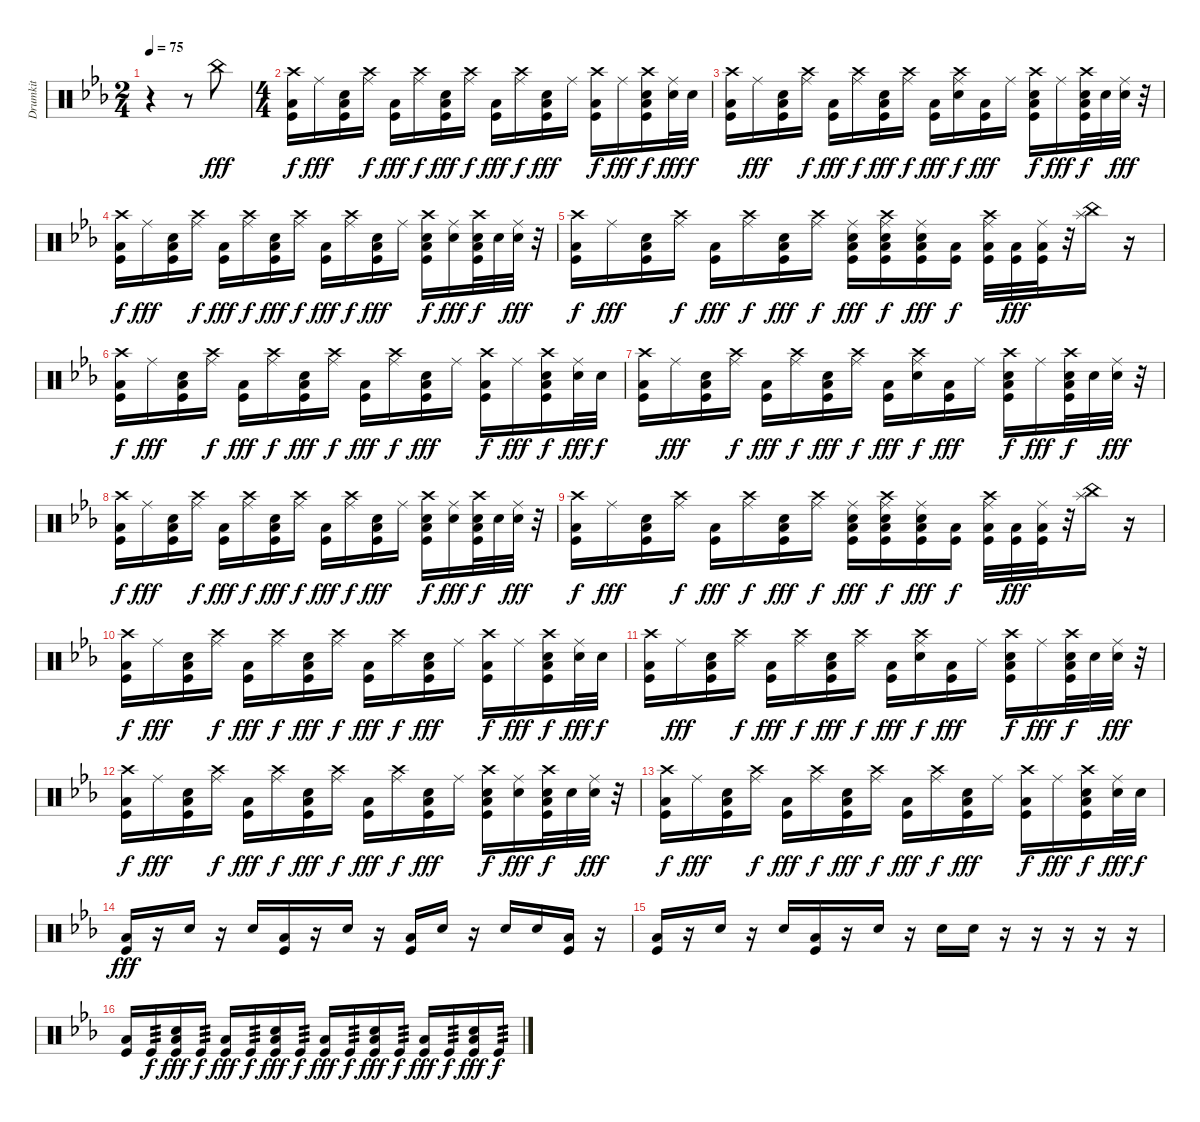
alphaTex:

\track ("Drumkit" "Drumkit") {instrument percussion}
\staff {score}
\articulation defaults
\ts (2 4)
\tempo 75
\clef neutral
\ks eb
r.4{dy fff} r.8 "China (hit)".8 |
\ts (4 4)
("Crash high (hit)" "Low Floor Tom (hit)" "Kick (hit)").16{dy f} "Ride (middle)".16{dy fff} ("Low Floor Tom (hit)" "Snare (hit) 2" "Kick (hit)").16 ("Crash high (hit)" "Ride (middle)").16{dy f} ("Low Floor Tom (hit)" "Kick (hit)").16{dy fff} ("Crash high (hit)" "Ride (middle)").16{dy f} ("Low Floor Tom (hit)" "Snare (hit) 2" "Kick (hit)").16{dy fff} ("Crash high (hit)" "Ride (middle)").16{dy f} ("Low Floor Tom (hit)" "Kick (hit)").16{dy fff} ("Crash high (hit)" "Ride (middle)").16{dy f} ("Low Floor Tom (hit)" "Snare (hit) 2" "Kick (hit)").16{dy fff} "Ride (middle)".16 ("Crash high (hit)" "Low Floor Tom (hit)" "Kick (hit)").16{dy f} "Ride (middle)".16{dy fff} ("Crash high (hit)" "Low Floor Tom (hit)" "Snare (hit) 2" "Kick (hit)").16{dy f} ("Ride (middle)" "Snare (hit) 2").32{dy fff} "Snare (hit) 2".32{dy f} |
("Crash high (hit)" "Low Floor Tom (hit)" "Kick (hit)").16 "Ride (middle)".16{dy fff} ("Low Floor Tom (hit)" "Snare (hit) 2" "Kick (hit)").16 ("Crash high (hit)" "Ride (middle)").16{dy f} ("Low Floor Tom (hit)" "Kick (hit)").16{dy fff} ("Crash high (hit)" "Ride (middle)").16{dy f} ("Low Floor Tom (hit)" "Snare (hit) 2" "Kick (hit)").16{dy fff} ("Crash high (hit)" "Ride (middle)").16{dy f} ("Low Floor Tom (hit)" "Kick (hit)").16{dy fff} ("Crash high (hit)" "Ride (middle)" "Snare (hit) 2").16{dy f} ("Low Floor Tom (hit)" "Kick (hit)").16{dy fff} "Ride (middle)".16 ("Crash high (hit)" "Low Floor Tom (hit)" "Snare (hit) 2" "Kick (hit)").16{dy f} "Ride (middle)".16{dy fff} ("Crash high (hit)" "Low Floor Tom (hit)" "Snare (hit) 2" "Kick (hit)").32{dy f} "Snare (hit) 2".32 ("Ride (middle)" "Snare (hit) 2").32{dy fff} r.32 |
("Crash high (hit)" "Low Floor Tom (hit)" "Kick (hit)").16{dy f} "Ride (middle)".16{dy fff} ("Low Floor Tom (hit)" "Snare (hit) 2" "Kick (hit)").16 ("Crash high (hit)" "Ride (middle)").16{dy f} ("Low Floor Tom (hit)" "Kick (hit)").16{dy fff} ("Crash high (hit)" "Ride (middle)").16{dy f} ("Low Floor Tom (hit)" "Snare (hit) 2" "Kick (hit)").16{dy fff} ("Crash high (hit)" "Ride (middle)").16{dy f} ("Low Floor Tom (hit)" "Kick (hit)").16{dy fff} ("Crash high (hit)" "Ride (middle)").16{dy f} ("Low Floor Tom (hit)" "Snare (hit) 2" "Kick (hit)").16{dy fff} "Ride (middle)".16 ("Crash high (hit)" "Low Floor Tom (hit)" "Snare (hit) 2" "Kick (hit)").16{dy f} ("Ride (middle)" "Snare (hit) 2").16{dy fff} ("Crash high (hit)" "Low Floor Tom (hit)" "Snare (hit) 2" "Kick (hit)").32{dy f} "Snare (hit) 2".32 ("Ride (middle)" "Snare (hit) 2").32{dy fff} r.32 |
("Crash high (hit)" "Low Floor Tom (hit)" "Kick (hit)").16{dy f} "Ride (middle)".16{dy fff} ("Low Floor Tom (hit)" "Snare (hit) 2" "Kick (hit)").16 ("Crash high (hit)" "Ride (middle)").16{dy f} ("Low Floor Tom (hit)" "Kick (hit)").16{dy fff} ("Crash high (hit)" "Ride (middle)").16{dy f} ("Low Floor Tom (hit)" "Snare (hit) 2" "Kick (hit)").16{dy fff} ("Crash high (hit)" "Ride (middle)").16{dy f} ("Ride (middle)" "Low Floor Tom (hit)" "Snare (hit) 2" "Kick (hit)").16{dy fff} ("Crash high (hit)" "Ride (middle)" "Low Floor Tom (hit)" "Snare (hit) 2" "Kick (hit)").16{dy f} ("Ride (middle)" "Low Floor Tom (hit)" "Snare (hit) 2" "Kick (hit)").16{dy fff} ("Low Floor Tom (hit)" "Kick (hit)").16{dy f} ("Crash high (hit)" "Ride (middle)" "Low Floor Tom (hit)" "Kick (hit)").32 ("Low Floor Tom (hit)" "Kick (hit)").32{dy fff} ("Ride (middle)" "Low Floor Tom (hit)" "Kick (hit)").32 r.32 ("Splash (hit)" "China (hit)").16 r.16 |
("Crash high (hit)" "Low Floor Tom (hit)" "Kick (hit)").16{dy f} "Ride (middle)".16{dy fff} ("Low Floor Tom (hit)" "Snare (hit) 2" "Kick (hit)").16 ("Crash high (hit)" "Ride (middle)").16{dy f} ("Low Floor Tom (hit)" "Kick (hit)").16{dy fff} ("Crash high (hit)" "Ride (middle)").16{dy f} ("Low Floor Tom (hit)" "Snare (hit) 2" "Kick (hit)").16{dy fff} ("Crash high (hit)" "Ride (middle)").16{dy f} ("Low Floor Tom (hit)" "Kick (hit)").16{dy fff} ("Crash high (hit)" "Ride (middle)").16{dy f} ("Low Floor Tom (hit)" "Snare (hit) 2" "Kick (hit)").16{dy fff} "Ride (middle)".16 ("Crash high (hit)" "Low Floor Tom (hit)" "Kick (hit)").16{dy f} "Ride (middle)".16{dy fff} ("Crash high (hit)" "Low Floor Tom (hit)" "Snare (hit) 2" "Kick (hit)").16{dy f} ("Ride (middle)" "Snare (hit) 2").32{dy fff} "Snare (hit) 2".32{dy f} |
("Crash high (hit)" "Low Floor Tom (hit)" "Kick (hit)").16 "Ride (middle)".16{dy fff} ("Low Floor Tom (hit)" "Snare (hit) 2" "Kick (hit)").16 ("Crash high (hit)" "Ride (middle)").16{dy f} ("Low Floor Tom (hit)" "Kick (hit)").16{dy fff} ("Crash high (hit)" "Ride (middle)").16{dy f} ("Low Floor Tom (hit)" "Snare (hit) 2" "Kick (hit)").16{dy fff} ("Crash high (hit)" "Ride (middle)").16{dy f} ("Low Floor Tom (hit)" "Kick (hit)").16{dy fff} ("Crash high (hit)" "Ride (middle)" "Snare (hit) 2").16{dy f} ("Low Floor Tom (hit)" "Kick (hit)").16{dy fff} "Ride (middle)".16 ("Crash high (hit)" "Low Floor Tom (hit)" "Snare (hit) 2" "Kick (hit)").16{dy f} "Ride (middle)".16{dy fff} ("Crash high (hit)" "Low Floor Tom (hit)" "Snare (hit) 2" "Kick (hit)").32{dy f} "Snare (hit) 2".32 ("Ride (middle)" "Snare (hit) 2").32{dy fff} r.32 |
("Crash high (hit)" "Low Floor Tom (hit)" "Kick (hit)").16{dy f} "Ride (middle)".16{dy fff} ("Low Floor Tom (hit)" "Snare (hit) 2" "Kick (hit)").16 ("Crash high (hit)" "Ride (middle)").16{dy f} ("Low Floor Tom (hit)" "Kick (hit)").16{dy fff} ("Crash high (hit)" "Ride (middle)").16{dy f} ("Low Floor Tom (hit)" "Snare (hit) 2" "Kick (hit)").16{dy fff} ("Crash high (hit)" "Ride (middle)").16{dy f} ("Low Floor Tom (hit)" "Kick (hit)").16{dy fff} ("Crash high (hit)" "Ride (middle)").16{dy f} ("Low Floor Tom (hit)" "Snare (hit) 2" "Kick (hit)").16{dy fff} "Ride (middle)".16 ("Crash high (hit)" "Low Floor Tom (hit)" "Snare (hit) 2" "Kick (hit)").16{dy f} ("Ride (middle)" "Snare (hit) 2").16{dy fff} ("Crash high (hit)" "Low Floor Tom (hit)" "Snare (hit) 2" "Kick (hit)").32{dy f} "Snare (hit) 2".32 ("Ride (middle)" "Snare (hit) 2").32{dy fff} r.32 |
("Crash high (hit)" "Low Floor Tom (hit)" "Kick (hit)").16{dy f} "Ride (middle)".16{dy fff} ("Low Floor Tom (hit)" "Snare (hit) 2" "Kick (hit)").16 ("Crash high (hit)" "Ride (middle)").16{dy f} ("Low Floor Tom (hit)" "Kick (hit)").16{dy fff} ("Crash high (hit)" "Ride (middle)").16{dy f} ("Low Floor Tom (hit)" "Snare (hit) 2" "Kick (hit)").16{dy fff} ("Crash high (hit)" "Ride (middle)").16{dy f} ("Ride (middle)" "Low Floor Tom (hit)" "Snare (hit) 2" "Kick (hit)").16{dy fff} ("Crash high (hit)" "Ride (middle)" "Low Floor Tom (hit)" "Snare (hit) 2" "Kick (hit)").16{dy f} ("Ride (middle)" "Low Floor Tom (hit)" "Snare (hit) 2" "Kick (hit)").16{dy fff} ("Low Floor Tom (hit)" "Kick (hit)").16{dy f} ("Crash high (hit)" "Ride (middle)" "Low Floor Tom (hit)" "Kick (hit)").32 ("Low Floor Tom (hit)" "Kick (hit)").32{dy fff} ("Ride (middle)" "Low Floor Tom (hit)" "Kick (hit)").32 r.32 ("Splash (hit)" "China (hit)").16 r.16 |
("Crash high (hit)" "Low Floor Tom (hit)" "Kick (hit)").16{dy f} "Ride (middle)".16{dy fff} ("Low Floor Tom (hit)" "Snare (hit) 2" "Kick (hit)").16 ("Crash high (hit)" "Ride (middle)").16{dy f} ("Low Floor Tom (hit)" "Kick (hit)").16{dy fff} ("Crash high (hit)" "Ride (middle)").16{dy f} ("Low Floor Tom (hit)" "Snare (hit) 2" "Kick (hit)").16{dy fff} ("Crash high (hit)" "Ride (middle)").16{dy f} ("Low Floor Tom (hit)" "Kick (hit)").16{dy fff} ("Crash high (hit)" "Ride (middle)").16{dy f} ("Low Floor Tom (hit)" "Snare (hit) 2" "Kick (hit)").16{dy fff} "Ride (middle)".16 ("Crash high (hit)" "Low Floor Tom (hit)" "Kick (hit)").16{dy f} "Ride (middle)".16{dy fff} ("Crash high (hit)" "Low Floor Tom (hit)" "Snare (hit) 2" "Kick (hit)").16{dy f} ("Ride (middle)" "Snare (hit) 2").32{dy fff} "Snare (hit) 2".32{dy f} |
("Crash high (hit)" "Low Floor Tom (hit)" "Kick (hit)").16 "Ride (middle)".16{dy fff} ("Low Floor Tom (hit)" "Snare (hit) 2" "Kick (hit)").16 ("Crash high (hit)" "Ride (middle)").16{dy f} ("Low Floor Tom (hit)" "Kick (hit)").16{dy fff} ("Crash high (hit)" "Ride (middle)").16{dy f} ("Low Floor Tom (hit)" "Snare (hit) 2" "Kick (hit)").16{dy fff} ("Crash high (hit)" "Ride (middle)").16{dy f} ("Low Floor Tom (hit)" "Kick (hit)").16{dy fff} ("Crash high (hit)" "Ride (middle)" "Snare (hit) 2").16{dy f} ("Low Floor Tom (hit)" "Kick (hit)").16{dy fff} "Ride (middle)".16 ("Crash high (hit)" "Low Floor Tom (hit)" "Snare (hit) 2" "Kick (hit)").16{dy f} "Ride (middle)".16{dy fff} ("Crash high (hit)" "Low Floor Tom (hit)" "Snare (hit) 2" "Kick (hit)").32{dy f} "Snare (hit) 2".32 ("Ride (middle)" "Snare (hit) 2").32{dy fff} r.32 |
("Crash high (hit)" "Low Floor Tom (hit)" "Kick (hit)").16{dy f} "Ride (middle)".16{dy fff} ("Low Floor Tom (hit)" "Snare (hit) 2" "Kick (hit)").16 ("Crash high (hit)" "Ride (middle)").16{dy f} ("Low Floor Tom (hit)" "Kick (hit)").16{dy fff} ("Crash high (hit)" "Ride (middle)").16{dy f} ("Low Floor Tom (hit)" "Snare (hit) 2" "Kick (hit)").16{dy fff} ("Crash high (hit)" "Ride (middle)").16{dy f} ("Low Floor Tom (hit)" "Kick (hit)").16{dy fff} ("Crash high (hit)" "Ride (middle)").16{dy f} ("Low Floor Tom (hit)" "Snare (hit) 2" "Kick (hit)").16{dy fff} "Ride (middle)".16 ("Crash high (hit)" "Low Floor Tom (hit)" "Snare (hit) 2" "Kick (hit)").16{dy f} ("Ride (middle)" "Snare (hit) 2").16{dy fff} ("Crash high (hit)" "Low Floor Tom (hit)" "Snare (hit) 2" "Kick (hit)").32{dy f} "Snare (hit) 2".32 ("Ride (middle)" "Snare (hit) 2").32{dy fff} r.32 |
("Crash high (hit)" "Low Floor Tom (hit)" "Kick (hit)").16{dy f} "Ride (middle)".16{dy fff} ("Low Floor Tom (hit)" "Snare (hit) 2" "Kick (hit)").16 ("Crash high (hit)" "Ride (middle)").16{dy f} ("Low Floor Tom (hit)" "Kick (hit)").16{dy fff} ("Crash high (hit)" "Ride (middle)").16{dy f} ("Low Floor Tom (hit)" "Snare (hit) 2" "Kick (hit)").16{dy fff} ("Crash high (hit)" "Ride (middle)").16{dy f} ("Low Floor Tom (hit)" "Kick (hit)").16{dy fff} ("Crash high (hit)" "Ride (middle)").16{dy f} ("Low Floor Tom (hit)" "Snare (hit) 2" "Kick (hit)").16{dy fff} "Ride (middle)".16 ("Crash high (hit)" "Low Floor Tom (hit)" "Kick (hit)").16{dy f} "Ride (middle)".16{dy fff} ("Crash high (hit)" "Low Floor Tom (hit)" "Snare (hit) 2" "Kick (hit)").16{dy f} ("Ride (middle)" "Snare (hit) 2").32{dy fff} "Snare (hit) 2".32{dy f} |
("Low Floor Tom (hit)" "Kick (hit)").16{dy fff} r.16 "Snare (hit) 2".16 r.16 "Snare (hit) 2".16 ("Low Floor Tom (hit)" "Kick (hit)").16 r.16 "Snare (hit) 2".16 r.16 ("Low Floor Tom (hit)" "Kick (hit)").16 "Snare (hit) 2".16 r.16 "Snare (hit) 2".16 "Snare (hit) 2".16 ("Low Floor Tom (hit)" "Kick (hit)").16 r.16 |
("Low Floor Tom (hit)" "Kick (hit)").16 r.16 "Snare (hit) 2".16 r.16 "Snare (hit) 2".16 ("Low Floor Tom (hit)" "Kick (hit)").16 r.16 "Snare (hit) 2".16 r.16 "Snare (hit) 2".16 "Snare (hit) 2".16 r.16 r.16 r.16 r.16 r.16 |
("Low Floor Tom (hit)" "Kick (hit)").16 "Kick (hit)".16{tp 3 dy f} ("Low Floor Tom (hit)" "Snare (hit) 2" "Kick (hit)").16{dy fff} "Kick (hit)".16{tp 3 dy f} ("Low Floor Tom (hit)" "Kick (hit)").16{dy fff} "Kick (hit)".16{tp 3 dy f} ("Low Floor Tom (hit)" "Snare (hit) 2" "Kick (hit)").16{dy fff} "Kick (hit)".16{tp 3 dy f} ("Low Floor Tom (hit)" "Kick (hit)").16{dy fff} "Kick (hit)".16{tp 3 dy f} ("Low Floor Tom (hit)" "Snare (hit) 2" "Kick (hit)").16{dy fff} "Kick (hit)".16{tp 3 dy f} ("Low Floor Tom (hit)" "Kick (hit)").16{dy fff} "Kick (hit)".16{tp 3 dy f} ("Low Floor Tom (hit)" "Snare (hit) 2" "Kick (hit)").16{dy fff} "Kick (hit)".16{tp 3 dy f}
